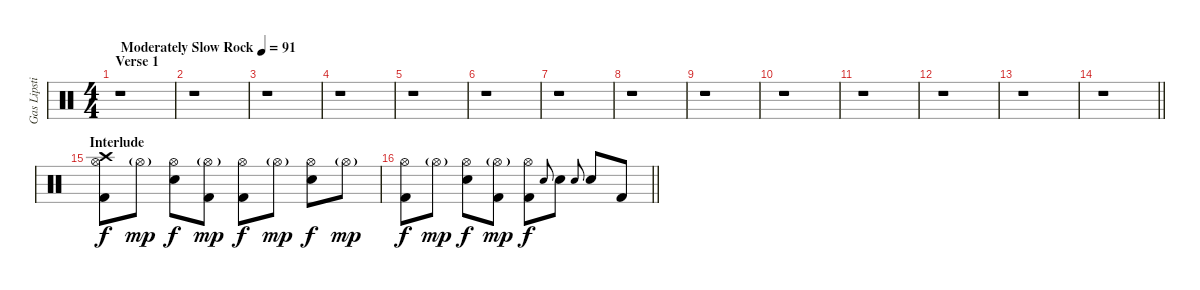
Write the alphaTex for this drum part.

\track ("Gas Lipstick (Drums)" "Gas Lipsti") {instrument percussion}
\staff {score}
\articulation defaults
\ts (4 4)
\section ("" "Verse 1")
\tempo (91 "Moderately Slow Rock")
\clef neutral
\ks c
r.1{dy f} |
r.1 |
r.1 |
r.1 |
r.1 |
r.1 |
r.1 |
r.1 |
r.1 |
r.1 |
r.1 |
r.1 |
r.1 |
\barLineRight lightlight
r.1 |
\section ("" "Interlude")
("Crash high (hit)" "Hi-Hat (open)" "Kick (hit) 2").8 "Hi-Hat (open)"{g}.8{dy mp} ("Hi-Hat (open)" "Snare (hit) 2").8{dy f} ("Hi-Hat (open)"{g} "Kick (hit) 2").8{dy mp} ("Hi-Hat (open)" "Kick (hit) 2").8{dy f} "Hi-Hat (open)"{g}.8{dy mp} ("Hi-Hat (open)" "Snare (hit) 2").8{dy f} "Hi-Hat (open)"{g}.8{dy mp} |
\barLineRight lightlight
("Hi-Hat (open)" "Kick (hit) 2").8{dy f} "Hi-Hat (open)"{g}.8{dy mp} ("Hi-Hat (open)" "Snare (hit) 2").8{dy f} ("Hi-Hat (open)"{g} "Kick (hit) 2").8{dy mp} ("Hi-Hat (open)" "Kick (hit) 2").8{dy f} "Snare (hit) 2".8{gr onbeat} "Snare (hit) 2".8 "Snare (hit) 2".8{gr onbeat} "Snare (hit) 2".8 "Kick (hit) 2".8
